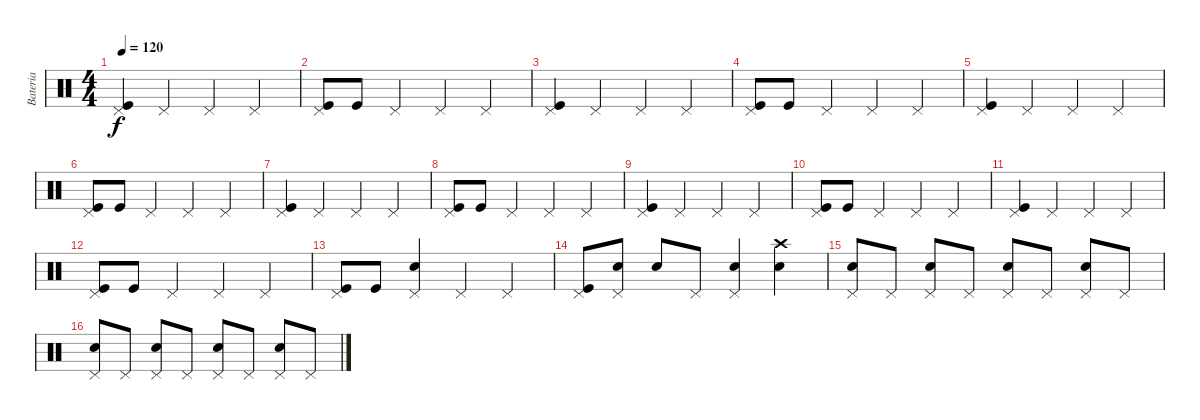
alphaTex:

\track ("Bateria" "Bateria") {instrument percussion}
\staff {score}
\articulation defaults
\ts (4 4)
\tempo 120
\clef neutral
\ks c
("Pedal Hi-Hat (hit)" "Kick (hit)").4{dy f} "Pedal Hi-Hat (hit)".4 "Pedal Hi-Hat (hit)".4 "Pedal Hi-Hat (hit)".4 |
("Pedal Hi-Hat (hit)" "Kick (hit)").8 "Kick (hit)".8 "Pedal Hi-Hat (hit)".4 "Pedal Hi-Hat (hit)".4 "Pedal Hi-Hat (hit)".4 |
("Pedal Hi-Hat (hit)" "Kick (hit)").4 "Pedal Hi-Hat (hit)".4 "Pedal Hi-Hat (hit)".4 "Pedal Hi-Hat (hit)".4 |
("Pedal Hi-Hat (hit)" "Kick (hit)").8 "Kick (hit)".8 "Pedal Hi-Hat (hit)".4 "Pedal Hi-Hat (hit)".4 "Pedal Hi-Hat (hit)".4 |
("Pedal Hi-Hat (hit)" "Kick (hit)").4 "Pedal Hi-Hat (hit)".4 "Pedal Hi-Hat (hit)".4 "Pedal Hi-Hat (hit)".4 |
("Pedal Hi-Hat (hit)" "Kick (hit)").8 "Kick (hit)".8 "Pedal Hi-Hat (hit)".4 "Pedal Hi-Hat (hit)".4 "Pedal Hi-Hat (hit)".4 |
("Pedal Hi-Hat (hit)" "Kick (hit)").4 "Pedal Hi-Hat (hit)".4 "Pedal Hi-Hat (hit)".4 "Pedal Hi-Hat (hit)".4 |
("Pedal Hi-Hat (hit)" "Kick (hit)").8 "Kick (hit)".8 "Pedal Hi-Hat (hit)".4 "Pedal Hi-Hat (hit)".4 "Pedal Hi-Hat (hit)".4 |
("Pedal Hi-Hat (hit)" "Kick (hit)").4 "Pedal Hi-Hat (hit)".4 "Pedal Hi-Hat (hit)".4 "Pedal Hi-Hat (hit)".4 |
("Pedal Hi-Hat (hit)" "Kick (hit)").8 "Kick (hit)".8 "Pedal Hi-Hat (hit)".4 "Pedal Hi-Hat (hit)".4 "Pedal Hi-Hat (hit)".4 |
("Pedal Hi-Hat (hit)" "Kick (hit)").4 "Pedal Hi-Hat (hit)".4 "Pedal Hi-Hat (hit)".4 "Pedal Hi-Hat (hit)".4 |
("Pedal Hi-Hat (hit)" "Kick (hit)").8 "Kick (hit)".8 "Pedal Hi-Hat (hit)".4 "Pedal Hi-Hat (hit)".4 "Pedal Hi-Hat (hit)".4 |
("Pedal Hi-Hat (hit)" "Kick (hit)").8 "Kick (hit)".8 ("Pedal Hi-Hat (hit)" "Snare (hit) 2").4 "Pedal Hi-Hat (hit)".4 "Pedal Hi-Hat (hit)".4 |
("Pedal Hi-Hat (hit)" "Kick (hit)").8 ("Pedal Hi-Hat (hit)" "Snare (hit) 2").8 "Snare (hit) 2".8 "Pedal Hi-Hat (hit)".8 ("Pedal Hi-Hat (hit)" "Snare (hit) 2").4 ("Crash high (hit)" "Snare (hit) 2").4 |
("Pedal Hi-Hat (hit)" "Snare (hit) 2").8 "Pedal Hi-Hat (hit)".8 ("Pedal Hi-Hat (hit)" "Snare (hit) 2").8 "Pedal Hi-Hat (hit)".8 ("Pedal Hi-Hat (hit)" "Snare (hit) 2").8 "Pedal Hi-Hat (hit)".8 ("Pedal Hi-Hat (hit)" "Snare (hit) 2").8 "Pedal Hi-Hat (hit)".8 |
("Pedal Hi-Hat (hit)" "Snare (hit) 2").8 "Pedal Hi-Hat (hit)".8 ("Pedal Hi-Hat (hit)" "Snare (hit) 2").8 "Pedal Hi-Hat (hit)".8 ("Pedal Hi-Hat (hit)" "Snare (hit) 2").8 "Pedal Hi-Hat (hit)".8 ("Pedal Hi-Hat (hit)" "Snare (hit) 2").8 "Pedal Hi-Hat (hit)".8
